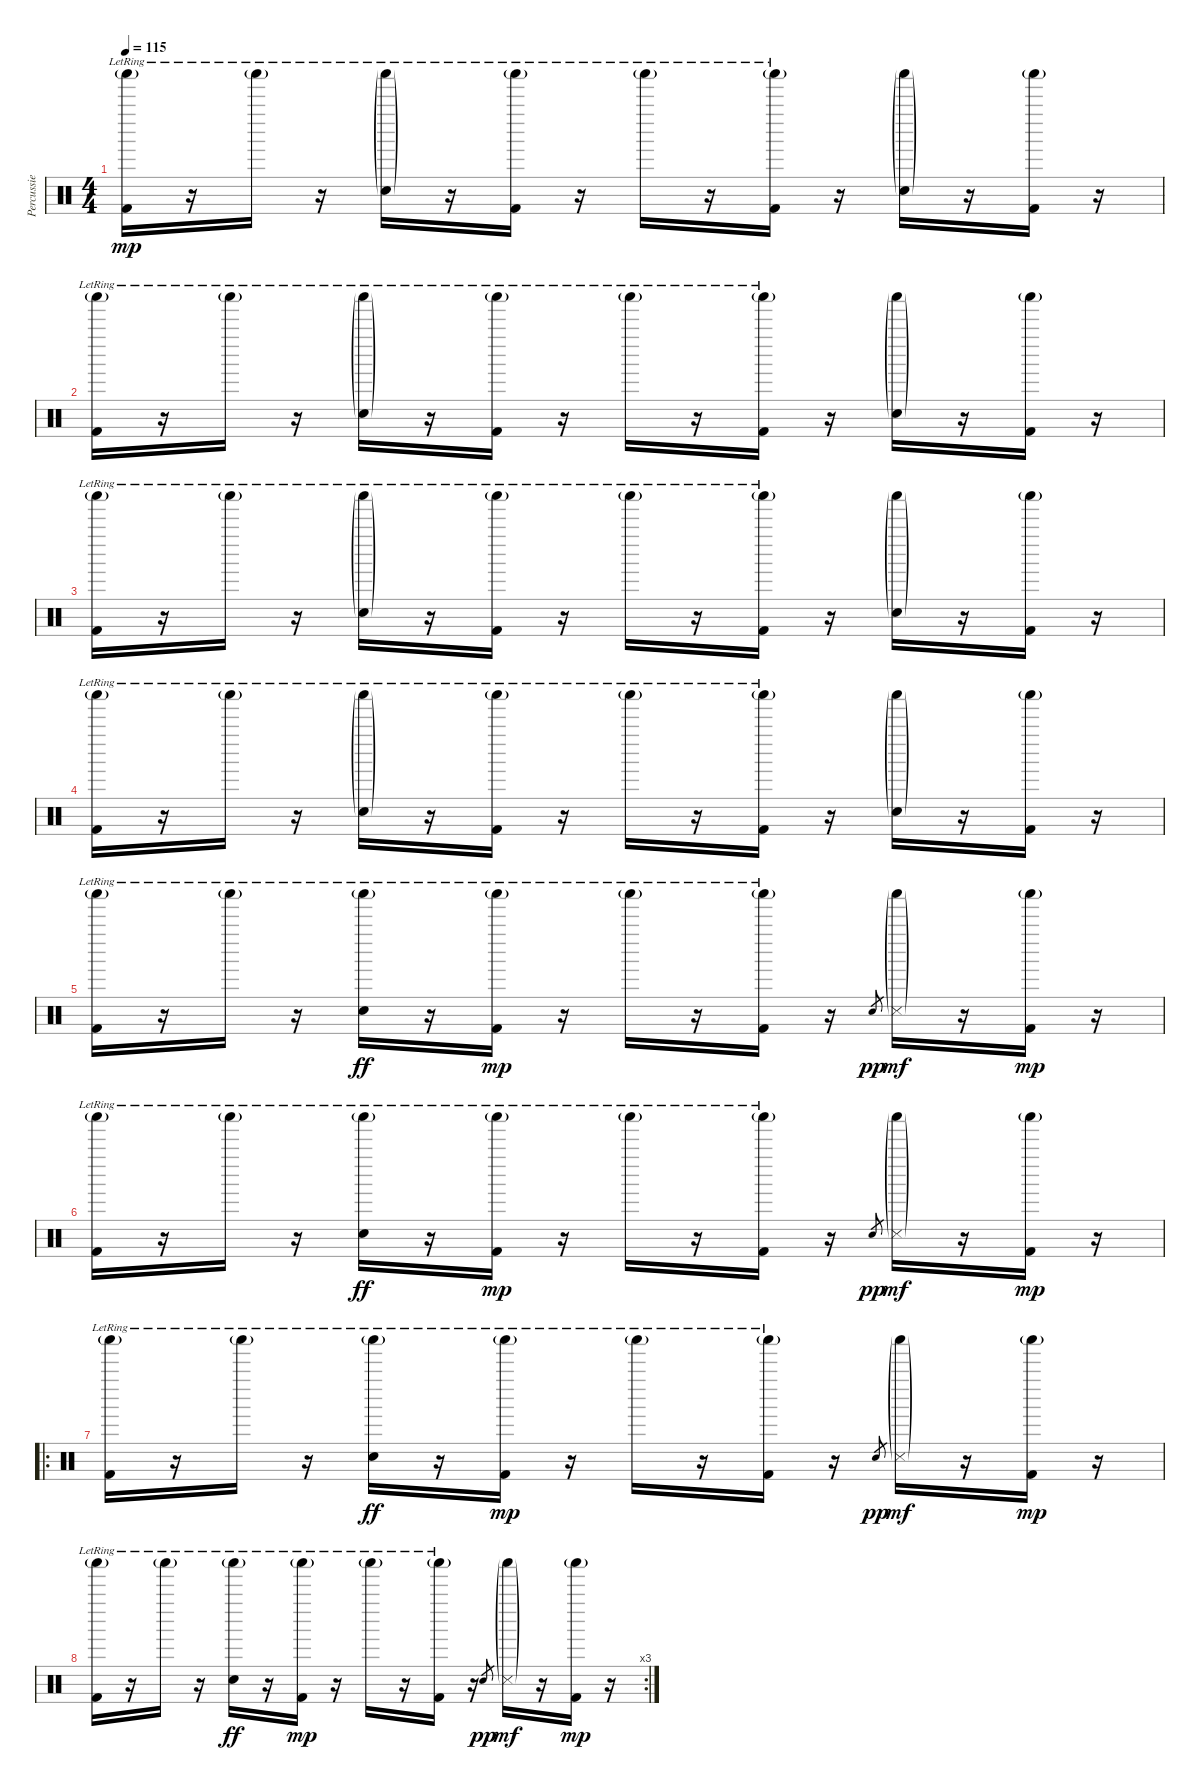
\track ("Percussie" "Percussie") {instrument percussion}
\staff {score}
\articulation defaults
\ts (4 4)
\tempo 115
\clef neutral
\ks c
("Shaker (hit)"{g lr} "Kick (hit) 2").16{dy mp} r.16 "Shaker (hit)"{g lr}.16 r.16 ("Shaker (hit)"{g lr} "Snare (hit) 2"{g}).16 r.16 ("Shaker (hit)"{g lr} "Kick (hit) 2").16 r.16 "Shaker (hit)"{g lr}.16 r.16 ("Shaker (hit)"{g lr} "Kick (hit) 2").16 r.16 ("Shaker (hit)"{g} "Snare (hit) 2"{g}).16 r.16 ("Shaker (hit)"{g} "Kick (hit) 2").16 r.16 |
("Shaker (hit)"{g lr} "Kick (hit) 2").16 r.16 "Shaker (hit)"{g lr}.16 r.16 ("Shaker (hit)"{g lr} "Snare (hit) 2"{g}).16 r.16 ("Shaker (hit)"{g lr} "Kick (hit) 2").16 r.16 "Shaker (hit)"{g lr}.16 r.16 ("Shaker (hit)"{g lr} "Kick (hit) 2").16 r.16 ("Shaker (hit)"{g} "Snare (hit) 2"{g}).16 r.16 ("Shaker (hit)"{g} "Kick (hit) 2").16 r.16 |
("Shaker (hit)"{g lr} "Kick (hit) 2").16 r.16 "Shaker (hit)"{g lr}.16 r.16 ("Shaker (hit)"{g lr} "Snare (hit) 2"{g}).16 r.16 ("Shaker (hit)"{g lr} "Kick (hit) 2").16 r.16 "Shaker (hit)"{g lr}.16 r.16 ("Shaker (hit)"{g lr} "Kick (hit) 2").16 r.16 ("Shaker (hit)"{g} "Snare (hit) 2"{g}).16 r.16 ("Shaker (hit)"{g} "Kick (hit) 2").16 r.16 |
("Shaker (hit)"{g lr} "Kick (hit) 2").16 r.16 "Shaker (hit)"{g lr}.16 r.16 ("Shaker (hit)"{g lr} "Snare (hit) 2"{g}).16 r.16 ("Shaker (hit)"{g lr} "Kick (hit) 2").16 r.16 "Shaker (hit)"{g lr}.16 r.16 ("Shaker (hit)"{g lr} "Kick (hit) 2").16 r.16 ("Shaker (hit)"{g} "Snare (hit) 2"{g}).16 r.16 ("Shaker (hit)"{g} "Kick (hit) 2").16 r.16 |
("Shaker (hit)"{g lr} "Kick (hit) 2").16 r.16 "Shaker (hit)"{g lr}.16 r.16 ("Shaker (hit)"{g lr} "Hand Clap (hit)"{lr}).16{dy ff} r.16 ("Shaker (hit)"{g lr} "Kick (hit) 2").16{dy mp} r.16 "Shaker (hit)"{g lr}.16 r.16 ("Shaker (hit)"{g lr} "Kick (hit) 2").16 r.16 "Snare (hit)".8{gr dy pp} ("Shaker (hit)"{g} "Metronome (hit)"{g}).16{dy mf} r.16 ("Shaker (hit)"{g} "Kick (hit) 2").16{dy mp} r.16 |
("Shaker (hit)"{g lr} "Kick (hit) 2").16 r.16 "Shaker (hit)"{g lr}.16 r.16 ("Shaker (hit)"{g lr} "Hand Clap (hit)"{lr}).16{dy ff} r.16 ("Shaker (hit)"{g lr} "Kick (hit) 2").16{dy mp} r.16 "Shaker (hit)"{g lr}.16 r.16 ("Shaker (hit)"{g lr} "Kick (hit) 2").16 r.16 "Snare (hit)".8{gr dy pp} ("Shaker (hit)"{g} "Metronome (hit)"{g}).16{dy mf} r.16 ("Shaker (hit)"{g} "Kick (hit) 2").16{dy mp} r.16 |
\ro
("Shaker (hit)"{g lr} "Kick (hit) 2").16 r.16 "Shaker (hit)"{g lr}.16 r.16 ("Shaker (hit)"{g lr} "Hand Clap (hit)"{lr}).16{dy ff} r.16 ("Shaker (hit)"{g lr} "Kick (hit) 2").16{dy mp} r.16 "Shaker (hit)"{g lr}.16 r.16 ("Shaker (hit)"{g lr} "Kick (hit) 2").16 r.16 "Snare (hit)".8{gr dy pp} ("Shaker (hit)"{g} "Metronome (hit)"{g}).16{dy mf} r.16 ("Shaker (hit)"{g} "Kick (hit) 2").16{dy mp} r.16 |
\rc 3
("Shaker (hit)"{g lr} "Kick (hit) 2").16 r.16 "Shaker (hit)"{g lr}.16 r.16 ("Shaker (hit)"{g lr} "Hand Clap (hit)"{lr}).16{dy ff} r.16 ("Shaker (hit)"{g lr} "Kick (hit) 2").16{dy mp} r.16 "Shaker (hit)"{g lr}.16 r.16 ("Shaker (hit)"{g lr} "Kick (hit) 2").16 r.16 "Snare (hit)".8{gr dy pp} ("Shaker (hit)"{g} "Metronome (hit)"{g}).16{dy mf} r.16 ("Shaker (hit)"{g} "Kick (hit) 2").16{dy mp} r.16
